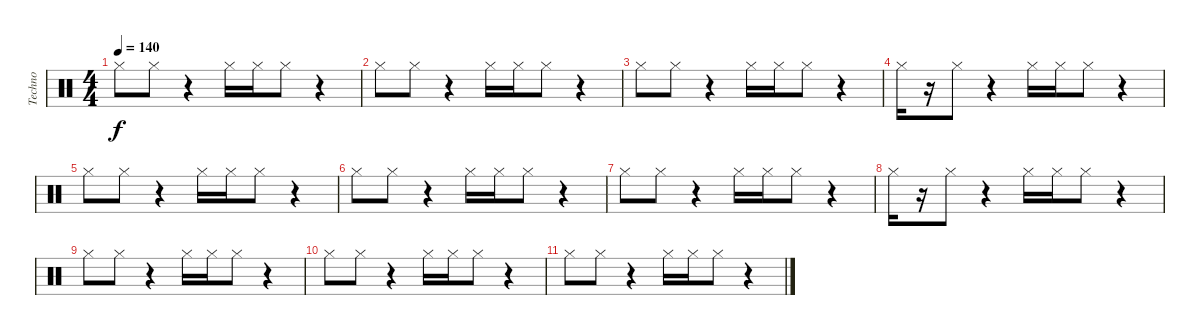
\track ("Techno" "Techno") {instrument percussion}
\staff {score}
\articulation defaults
\ts (4 4)
\tempo 140
\clef neutral
\ks c "Hi-Hat (closed)".8{dy f} "Hi-Hat (closed)".8
r.4 "Hi-Hat (closed)".16 "Hi-Hat (closed)".16 "Hi-Hat (closed)".8 r.4 |
"Hi-Hat (closed)".8 "Hi-Hat (closed)".8 r.4 "Hi-Hat (closed)".16 "Hi-Hat (closed)".16 "Hi-Hat (closed)".8 r.4 |
"Hi-Hat (closed)".8 "Hi-Hat (closed)".8 r.4 "Hi-Hat (closed)".16 "Hi-Hat (closed)".16 "Hi-Hat (closed)".8 r.4 |
"Hi-Hat (closed)".16 r.16 "Hi-Hat (closed)".8 r.4 "Hi-Hat (closed)".16 "Hi-Hat (closed)".16 "Hi-Hat (closed)".8 r.4 |
"Hi-Hat (closed)".8 "Hi-Hat (closed)".8 r.4 "Hi-Hat (closed)".16 "Hi-Hat (closed)".16 "Hi-Hat (closed)".8 r.4 |
"Hi-Hat (closed)".8 "Hi-Hat (closed)".8 r.4 "Hi-Hat (closed)".16 "Hi-Hat (closed)".16 "Hi-Hat (closed)".8 r.4 |
"Hi-Hat (closed)".8 "Hi-Hat (closed)".8 r.4 "Hi-Hat (closed)".16 "Hi-Hat (closed)".16 "Hi-Hat (closed)".8 r.4 |
"Hi-Hat (closed)".16 r.16 "Hi-Hat (closed)".8 r.4 "Hi-Hat (closed)".16 "Hi-Hat (closed)".16 "Hi-Hat (closed)".8 r.4 |
"Hi-Hat (closed)".8 "Hi-Hat (closed)".8 r.4 "Hi-Hat (closed)".16 "Hi-Hat (closed)".16 "Hi-Hat (closed)".8 r.4 |
"Hi-Hat (closed)".8 "Hi-Hat (closed)".8 r.4 "Hi-Hat (closed)".16 "Hi-Hat (closed)".16 "Hi-Hat (closed)".8 r.4 |
"Hi-Hat (closed)".8 "Hi-Hat (closed)".8 r.4 "Hi-Hat (closed)".16 "Hi-Hat (closed)".16 "Hi-Hat (closed)".8 r.4
